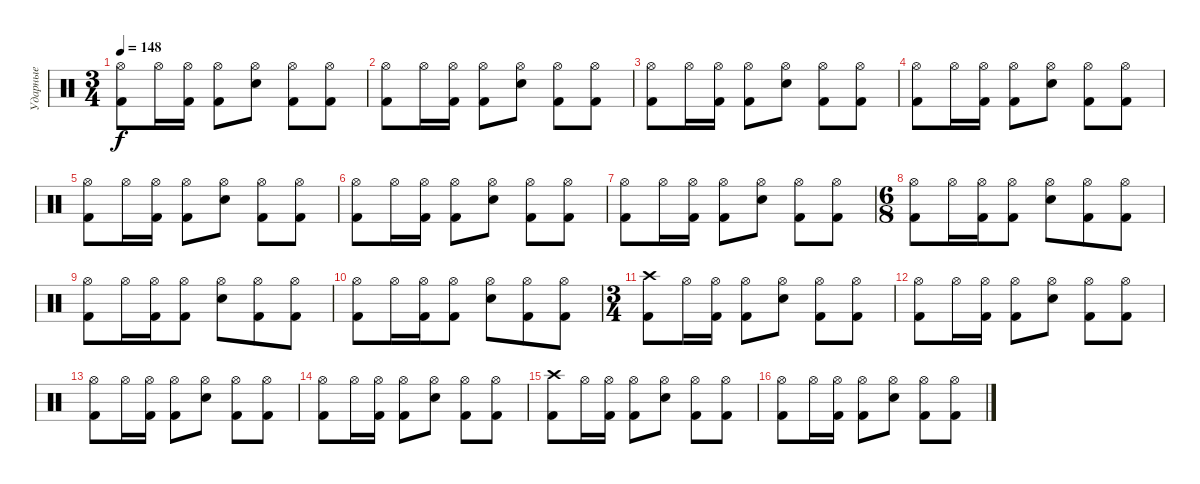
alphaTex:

\track ("Ударные" "Ударные") {instrument percussion}
\staff {score}
\articulation defaults
\ts (3 4)
\tempo 148
\clef neutral
\ks c
("Hi-Hat (open)" "Kick (hit) 2").8{dy f} "Hi-Hat (open)".16 ("Hi-Hat (open)" "Kick (hit) 2").16 ("Hi-Hat (open)" "Kick (hit) 2").8 ("Hi-Hat (open)" "Electric Snare (hit)").8 ("Hi-Hat (open)" "Kick (hit) 2").8 ("Hi-Hat (open)" "Kick (hit) 2").8 |
("Hi-Hat (open)" "Kick (hit) 2").8 "Hi-Hat (open)".16 ("Hi-Hat (open)" "Kick (hit) 2").16 ("Hi-Hat (open)" "Kick (hit) 2").8 ("Hi-Hat (open)" "Electric Snare (hit)").8 ("Hi-Hat (open)" "Kick (hit) 2").8 ("Hi-Hat (open)" "Kick (hit) 2").8 |
("Hi-Hat (open)" "Kick (hit) 2").8 "Hi-Hat (open)".16 ("Hi-Hat (open)" "Kick (hit) 2").16 ("Hi-Hat (open)" "Kick (hit) 2").8 ("Hi-Hat (open)" "Electric Snare (hit)").8 ("Hi-Hat (open)" "Kick (hit) 2").8 ("Hi-Hat (open)" "Kick (hit) 2").8 |
("Hi-Hat (open)" "Kick (hit) 2").8 "Hi-Hat (open)".16 ("Hi-Hat (open)" "Kick (hit) 2").16 ("Hi-Hat (open)" "Kick (hit) 2").8 ("Hi-Hat (open)" "Electric Snare (hit)").8 ("Hi-Hat (open)" "Kick (hit) 2").8 ("Hi-Hat (open)" "Kick (hit) 2").8 |
("Hi-Hat (open)" "Kick (hit) 2").8 "Hi-Hat (open)".16 ("Hi-Hat (open)" "Kick (hit) 2").16 ("Hi-Hat (open)" "Kick (hit) 2").8 ("Hi-Hat (open)" "Electric Snare (hit)").8 ("Hi-Hat (open)" "Kick (hit) 2").8 ("Hi-Hat (open)" "Kick (hit) 2").8 |
("Hi-Hat (open)" "Kick (hit) 2").8 "Hi-Hat (open)".16 ("Hi-Hat (open)" "Kick (hit) 2").16 ("Hi-Hat (open)" "Kick (hit) 2").8 ("Hi-Hat (open)" "Electric Snare (hit)").8 ("Hi-Hat (open)" "Kick (hit) 2").8 ("Hi-Hat (open)" "Kick (hit) 2").8 |
("Hi-Hat (open)" "Kick (hit) 2").8 "Hi-Hat (open)".16 ("Hi-Hat (open)" "Kick (hit) 2").16 ("Hi-Hat (open)" "Kick (hit) 2").8 ("Hi-Hat (open)" "Electric Snare (hit)").8 ("Hi-Hat (open)" "Kick (hit) 2").8 ("Hi-Hat (open)" "Kick (hit) 2").8 |
\ts (6 8)
("Hi-Hat (open)" "Kick (hit) 2").8 "Hi-Hat (open)".16 ("Hi-Hat (open)" "Kick (hit) 2").16 ("Hi-Hat (open)" "Kick (hit) 2").8 ("Hi-Hat (open)" "Electric Snare (hit)").8 ("Hi-Hat (open)" "Kick (hit) 2").8 ("Hi-Hat (open)" "Kick (hit) 2").8 |
("Hi-Hat (open)" "Kick (hit) 2").8 "Hi-Hat (open)".16 ("Hi-Hat (open)" "Kick (hit) 2").16 ("Hi-Hat (open)" "Kick (hit) 2").8 ("Hi-Hat (open)" "Electric Snare (hit)").8 ("Hi-Hat (open)" "Kick (hit) 2").8 ("Hi-Hat (open)" "Kick (hit) 2").8 |
("Hi-Hat (open)" "Kick (hit) 2").8 "Hi-Hat (open)".16 ("Hi-Hat (open)" "Kick (hit) 2").16 ("Hi-Hat (open)" "Kick (hit) 2").8 ("Hi-Hat (open)" "Electric Snare (hit)").8 ("Hi-Hat (open)" "Kick (hit) 2").8 ("Hi-Hat (open)" "Kick (hit) 2").8 |
\ts (3 4)
("Crash high (hit)" "Kick (hit) 2").8 "Hi-Hat (open)".16 ("Hi-Hat (open)" "Kick (hit) 2").16 ("Hi-Hat (open)" "Kick (hit) 2").8 ("Hi-Hat (open)" "Electric Snare (hit)").8 ("Hi-Hat (open)" "Kick (hit) 2").8 ("Hi-Hat (open)" "Kick (hit) 2").8 |
("Hi-Hat (open)" "Kick (hit) 2").8 "Hi-Hat (open)".16 ("Hi-Hat (open)" "Kick (hit) 2").16 ("Hi-Hat (open)" "Kick (hit) 2").8 ("Hi-Hat (open)" "Electric Snare (hit)").8 ("Hi-Hat (open)" "Kick (hit) 2").8 ("Hi-Hat (open)" "Kick (hit) 2").8 |
("Hi-Hat (open)" "Kick (hit) 2").8 "Hi-Hat (open)".16 ("Hi-Hat (open)" "Kick (hit) 2").16 ("Hi-Hat (open)" "Kick (hit) 2").8 ("Hi-Hat (open)" "Electric Snare (hit)").8 ("Hi-Hat (open)" "Kick (hit) 2").8 ("Hi-Hat (open)" "Kick (hit) 2").8 |
("Hi-Hat (open)" "Kick (hit) 2").8 "Hi-Hat (open)".16 ("Hi-Hat (open)" "Kick (hit) 2").16 ("Hi-Hat (open)" "Kick (hit) 2").8 ("Hi-Hat (open)" "Electric Snare (hit)").8 ("Hi-Hat (open)" "Kick (hit) 2").8 ("Hi-Hat (open)" "Kick (hit) 2").8 |
("Crash high (hit)" "Kick (hit) 2").8 "Hi-Hat (open)".16 ("Hi-Hat (open)" "Kick (hit) 2").16 ("Hi-Hat (open)" "Kick (hit) 2").8 ("Hi-Hat (open)" "Electric Snare (hit)").8 ("Hi-Hat (open)" "Kick (hit) 2").8 ("Hi-Hat (open)" "Kick (hit) 2").8 |
("Hi-Hat (open)" "Kick (hit) 2").8 "Hi-Hat (open)".16 ("Hi-Hat (open)" "Kick (hit) 2").16 ("Hi-Hat (open)" "Kick (hit) 2").8 ("Hi-Hat (open)" "Electric Snare (hit)").8 ("Hi-Hat (open)" "Kick (hit) 2").8 ("Hi-Hat (open)" "Kick (hit) 2").8
